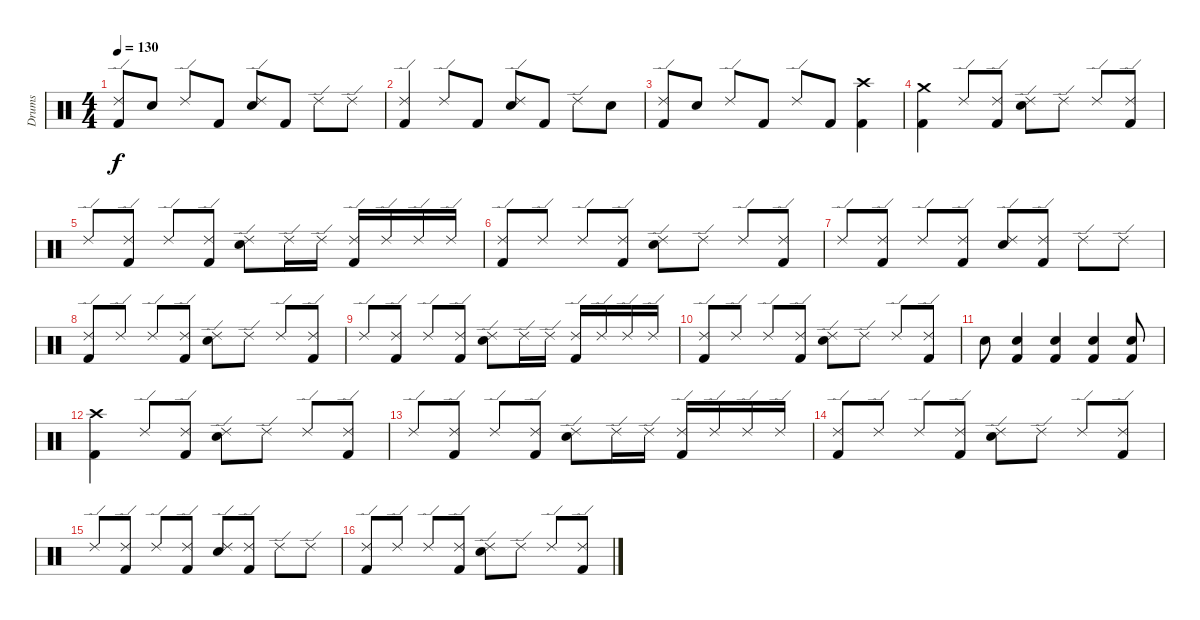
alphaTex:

\track ("Drums" "Drums") {instrument percussion}
\staff {score}
\articulation defaults
\ts (4 4)
\tempo 130
\clef neutral
\ks c
("Ride (edge) 2" "Kick (hit) 2").8{dy f} "Snare (hit) 2".8 "Ride (edge) 2".8 "Kick (hit) 2".8 ("Ride (edge) 2" "Snare (hit) 2").8 "Kick (hit) 2".8 "Ride (edge) 2".8 "Ride (edge) 2".8 |
("Ride (edge) 2" "Kick (hit) 2").4 "Ride (edge) 2".8 "Kick (hit) 2".8 ("Ride (edge) 2" "Snare (hit) 2").8 "Kick (hit) 2".8 "Ride (edge) 2".8 "Snare (hit) 2".8 |
("Ride (edge) 2" "Kick (hit) 2").8 "Snare (hit) 2".8 "Ride (edge) 2".8 "Kick (hit) 2".8 "Ride (edge) 2".8 "Kick (hit) 2".8 ("Crash high (hit)" "Kick (hit) 2").4 |
("Crash medium (hit)" "Kick (hit) 2").4 "Ride (edge) 2".8 ("Ride (edge) 2" "Kick (hit) 2").8 ("Ride (edge) 2" "Snare (hit) 2").8 "Ride (edge) 2".8 "Ride (edge) 2".8 ("Ride (edge) 2" "Kick (hit) 2").8 |
"Ride (edge) 2".8 ("Ride (edge) 2" "Kick (hit) 2").8 "Ride (edge) 2".8 ("Ride (edge) 2" "Kick (hit) 2").8 ("Ride (edge) 2" "Snare (hit) 2").8 "Ride (edge) 2".16 "Ride (edge) 2".16 ("Ride (edge) 2" "Kick (hit) 2").16 "Ride (edge) 2".16 "Ride (edge) 2".16 "Ride (edge) 2".16 |
("Ride (edge) 2" "Kick (hit) 2").8 "Ride (edge) 2".8 "Ride (edge) 2".8 ("Ride (edge) 2" "Kick (hit) 2").8 ("Ride (edge) 2" "Snare (hit) 2").8 "Ride (edge) 2".8 "Ride (edge) 2".8 ("Ride (edge) 2" "Kick (hit) 2").8 |
"Ride (edge) 2".8 ("Ride (edge) 2" "Kick (hit) 2").8 "Ride (edge) 2".8 ("Ride (edge) 2" "Kick (hit) 2").8 ("Ride (edge) 2" "Snare (hit) 2").8 ("Ride (edge) 2" "Kick (hit) 2").8 "Ride (edge) 2".8 "Ride (edge) 2".8 |
("Ride (edge) 2" "Kick (hit) 2").8 "Ride (edge) 2".8 "Ride (edge) 2".8 ("Ride (edge) 2" "Kick (hit) 2").8 ("Ride (edge) 2" "Snare (hit) 2").8 "Ride (edge) 2".8 "Ride (edge) 2".8 ("Ride (edge) 2" "Kick (hit) 2").8 |
"Ride (edge) 2".8 ("Ride (edge) 2" "Kick (hit) 2").8 "Ride (edge) 2".8 ("Ride (edge) 2" "Kick (hit) 2").8 ("Ride (edge) 2" "Snare (hit) 2").8 "Ride (edge) 2".16 "Ride (edge) 2".16 ("Ride (edge) 2" "Kick (hit) 2").16 "Ride (edge) 2".16 "Ride (edge) 2".16 "Ride (edge) 2".16 |
("Ride (edge) 2" "Kick (hit) 2").8 "Ride (edge) 2".8 "Ride (edge) 2".8 ("Ride (edge) 2" "Kick (hit) 2").8 ("Ride (edge) 2" "Snare (hit) 2").8 "Ride (edge) 2".8 "Ride (edge) 2".8 ("Ride (edge) 2" "Kick (hit) 2").8 |
"Snare (hit) 2".8 ("Snare (hit) 2" "Kick (hit) 2").4 ("Snare (hit) 2" "Kick (hit) 2").4 ("Snare (hit) 2" "Kick (hit) 2").4 ("Snare (hit) 2" "Kick (hit) 2").8 |
("Crash high (hit)" "Kick (hit) 2").4 "Ride (edge) 2".8 ("Ride (edge) 2" "Kick (hit) 2").8 ("Ride (edge) 2" "Snare (hit) 2").8 "Ride (edge) 2".8 "Ride (edge) 2".8 ("Ride (edge) 2" "Kick (hit) 2").8 |
"Ride (edge) 2".8 ("Ride (edge) 2" "Kick (hit) 2").8 "Ride (edge) 2".8 ("Ride (edge) 2" "Kick (hit) 2").8 ("Ride (edge) 2" "Snare (hit) 2").8 "Ride (edge) 2".16 "Ride (edge) 2".16 ("Ride (edge) 2" "Kick (hit) 2").16 "Ride (edge) 2".16 "Ride (edge) 2".16 "Ride (edge) 2".16 |
("Ride (edge) 2" "Kick (hit) 2").8 "Ride (edge) 2".8 "Ride (edge) 2".8 ("Ride (edge) 2" "Kick (hit) 2").8 ("Ride (edge) 2" "Snare (hit) 2").8 "Ride (edge) 2".8 "Ride (edge) 2".8 ("Ride (edge) 2" "Kick (hit) 2").8 |
"Ride (edge) 2".8 ("Ride (edge) 2" "Kick (hit) 2").8 "Ride (edge) 2".8 ("Ride (edge) 2" "Kick (hit) 2").8 ("Ride (edge) 2" "Snare (hit) 2").8 ("Ride (edge) 2" "Kick (hit) 2").8 "Ride (edge) 2".8 "Ride (edge) 2".8 |
("Ride (edge) 2" "Kick (hit) 2").8 "Ride (edge) 2".8 "Ride (edge) 2".8 ("Ride (edge) 2" "Kick (hit) 2").8 ("Ride (edge) 2" "Snare (hit) 2").8 "Ride (edge) 2".8 "Ride (edge) 2".8 ("Ride (edge) 2" "Kick (hit) 2").8
